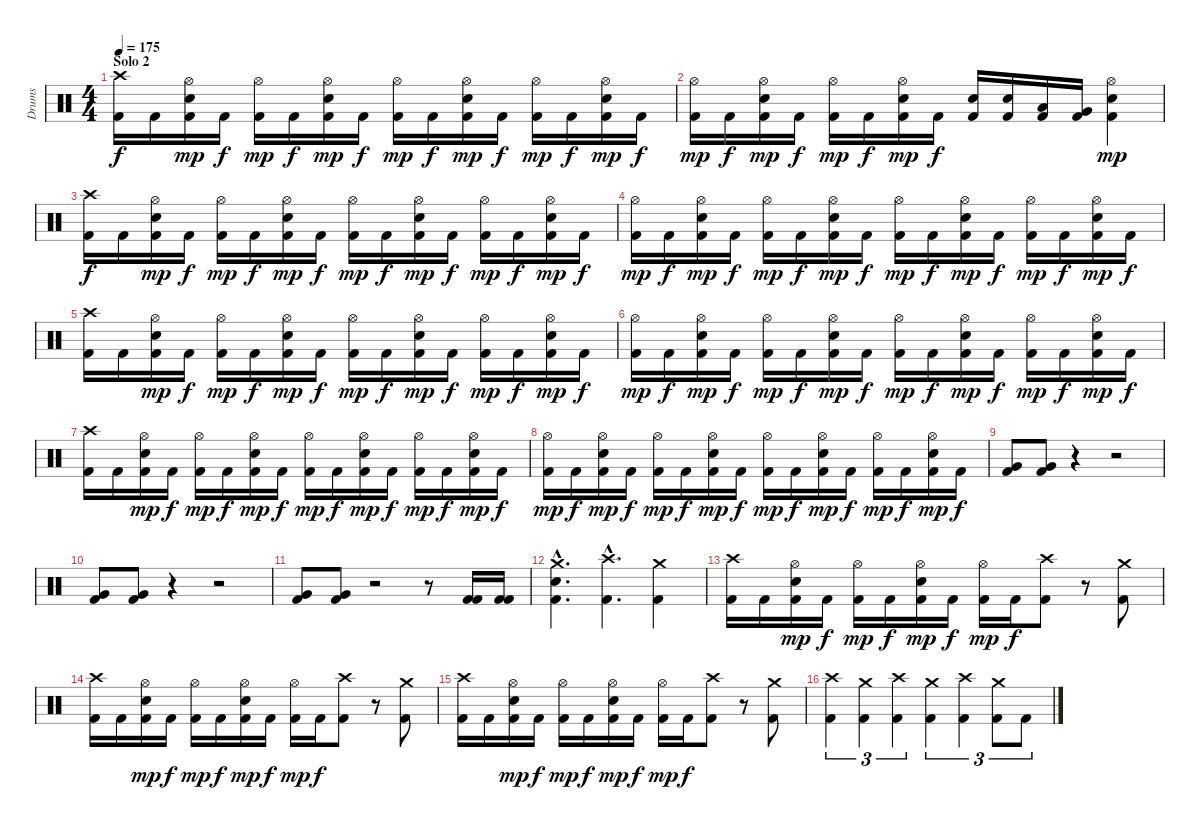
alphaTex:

\track ("Drums" "Drums") {instrument percussion}
\staff {score}
\articulation defaults
\ts (4 4)
\section ("" "Solo 2")
\tempo 175
\clef neutral
\ks c
("Kick (hit) 2" "Crash high (hit)").16{dy f} "Kick (hit) 2".16 ("Kick (hit) 2" "Electric Snare (hit)" "Hi-Hat (open)").16{dy mp} "Kick (hit) 2".16{dy f} ("Kick (hit) 2" "Hi-Hat (open)").16{dy mp} "Kick (hit) 2".16{dy f} ("Kick (hit) 2" "Electric Snare (hit)" "Hi-Hat (open)").16{dy mp} "Kick (hit) 2".16{dy f} ("Kick (hit) 2" "Hi-Hat (open)").16{dy mp} "Kick (hit) 2".16{dy f} ("Kick (hit) 2" "Electric Snare (hit)" "Hi-Hat (open)").16{dy mp} "Kick (hit) 2".16{dy f} ("Kick (hit) 2" "Hi-Hat (open)").16{dy mp} "Kick (hit) 2".16{dy f} ("Kick (hit) 2" "Electric Snare (hit)" "Hi-Hat (open)").16{dy mp} "Kick (hit) 2".16{dy f} |
("Kick (hit) 2" "Hi-Hat (open)").16{dy mp} "Kick (hit) 2".16{dy f} ("Kick (hit) 2" "Electric Snare (hit)" "Hi-Hat (open)").16{dy mp} "Kick (hit) 2".16{dy f} ("Kick (hit) 2" "Hi-Hat (open)").16{dy mp} "Kick (hit) 2".16{dy f} ("Kick (hit) 2" "Electric Snare (hit)" "Hi-Hat (open)").16{dy mp} "Kick (hit) 2".16{dy f} ("Kick (hit) 2" "Electric Snare (hit)").16 ("Kick (hit) 2" "Electric Snare (hit)").16 ("Kick (hit) 2" "Low Tom (hit)").16 ("Kick (hit) 2" "Very Low Tom (hit)").16 ("Kick (hit) 2" "Electric Snare (hit)" "Hi-Hat (open)").4{dy mp} |
("Kick (hit) 2" "Crash high (hit)").16{dy f} "Kick (hit) 2".16 ("Kick (hit) 2" "Electric Snare (hit)" "Hi-Hat (open)").16{dy mp} "Kick (hit) 2".16{dy f} ("Kick (hit) 2" "Hi-Hat (open)").16{dy mp} "Kick (hit) 2".16{dy f} ("Kick (hit) 2" "Electric Snare (hit)" "Hi-Hat (open)").16{dy mp} "Kick (hit) 2".16{dy f} ("Kick (hit) 2" "Hi-Hat (open)").16{dy mp} "Kick (hit) 2".16{dy f} ("Kick (hit) 2" "Electric Snare (hit)" "Hi-Hat (open)").16{dy mp} "Kick (hit) 2".16{dy f} ("Kick (hit) 2" "Hi-Hat (open)").16{dy mp} "Kick (hit) 2".16{dy f} ("Kick (hit) 2" "Electric Snare (hit)" "Hi-Hat (open)").16{dy mp} "Kick (hit) 2".16{dy f} |
("Kick (hit) 2" "Hi-Hat (open)").16{dy mp} "Kick (hit) 2".16{dy f} ("Kick (hit) 2" "Electric Snare (hit)" "Hi-Hat (open)").16{dy mp} "Kick (hit) 2".16{dy f} ("Kick (hit) 2" "Hi-Hat (open)").16{dy mp} "Kick (hit) 2".16{dy f} ("Kick (hit) 2" "Electric Snare (hit)" "Hi-Hat (open)").16{dy mp} "Kick (hit) 2".16{dy f} ("Kick (hit) 2" "Hi-Hat (open)").16{dy mp} "Kick (hit) 2".16{dy f} ("Kick (hit) 2" "Electric Snare (hit)" "Hi-Hat (open)").16{dy mp} "Kick (hit) 2".16{dy f} ("Kick (hit) 2" "Hi-Hat (open)").16{dy mp} "Kick (hit) 2".16{dy f} ("Kick (hit) 2" "Electric Snare (hit)" "Hi-Hat (open)").16{dy mp} "Kick (hit) 2".16{dy f} |
("Kick (hit) 2" "Crash high (hit)").16 "Kick (hit) 2".16 ("Kick (hit) 2" "Electric Snare (hit)" "Hi-Hat (open)").16{dy mp} "Kick (hit) 2".16{dy f} ("Kick (hit) 2" "Hi-Hat (open)").16{dy mp} "Kick (hit) 2".16{dy f} ("Kick (hit) 2" "Electric Snare (hit)" "Hi-Hat (open)").16{dy mp} "Kick (hit) 2".16{dy f} ("Kick (hit) 2" "Hi-Hat (open)").16{dy mp} "Kick (hit) 2".16{dy f} ("Kick (hit) 2" "Electric Snare (hit)" "Hi-Hat (open)").16{dy mp} "Kick (hit) 2".16{dy f} ("Kick (hit) 2" "Hi-Hat (open)").16{dy mp} "Kick (hit) 2".16{dy f} ("Kick (hit) 2" "Electric Snare (hit)" "Hi-Hat (open)").16{dy mp} "Kick (hit) 2".16{dy f} |
("Kick (hit) 2" "Hi-Hat (open)").16{dy mp} "Kick (hit) 2".16{dy f} ("Kick (hit) 2" "Electric Snare (hit)" "Hi-Hat (open)").16{dy mp} "Kick (hit) 2".16{dy f} ("Kick (hit) 2" "Hi-Hat (open)").16{dy mp} "Kick (hit) 2".16{dy f} ("Kick (hit) 2" "Electric Snare (hit)" "Hi-Hat (open)").16{dy mp} "Kick (hit) 2".16{dy f} ("Kick (hit) 2" "Hi-Hat (open)").16{dy mp} "Kick (hit) 2".16{dy f} ("Kick (hit) 2" "Electric Snare (hit)" "Hi-Hat (open)").16{dy mp} "Kick (hit) 2".16{dy f} ("Kick (hit) 2" "Hi-Hat (open)").16{dy mp} "Kick (hit) 2".16{dy f} ("Kick (hit) 2" "Electric Snare (hit)" "Hi-Hat (open)").16{dy mp} "Kick (hit) 2".16{dy f} |
("Kick (hit) 2" "Crash high (hit)").16 "Kick (hit) 2".16 ("Kick (hit) 2" "Electric Snare (hit)" "Hi-Hat (open)").16{dy mp} "Kick (hit) 2".16{dy f} ("Kick (hit) 2" "Hi-Hat (open)").16{dy mp} "Kick (hit) 2".16{dy f} ("Kick (hit) 2" "Electric Snare (hit)" "Hi-Hat (open)").16{dy mp} "Kick (hit) 2".16{dy f} ("Kick (hit) 2" "Hi-Hat (open)").16{dy mp} "Kick (hit) 2".16{dy f} ("Kick (hit) 2" "Electric Snare (hit)" "Hi-Hat (open)").16{dy mp} "Kick (hit) 2".16{dy f} ("Kick (hit) 2" "Hi-Hat (open)").16{dy mp} "Kick (hit) 2".16{dy f} ("Kick (hit) 2" "Electric Snare (hit)" "Hi-Hat (open)").16{dy mp} "Kick (hit) 2".16{dy f} |
("Kick (hit) 2" "Hi-Hat (open)").16{dy mp} "Kick (hit) 2".16{dy f} ("Kick (hit) 2" "Electric Snare (hit)" "Hi-Hat (open)").16{dy mp} "Kick (hit) 2".16{dy f} ("Kick (hit) 2" "Hi-Hat (open)").16{dy mp} "Kick (hit) 2".16{dy f} ("Kick (hit) 2" "Electric Snare (hit)" "Hi-Hat (open)").16{dy mp} "Kick (hit) 2".16{dy f} ("Kick (hit) 2" "Hi-Hat (open)").16{dy mp} "Kick (hit) 2".16{dy f} ("Kick (hit) 2" "Electric Snare (hit)" "Hi-Hat (open)").16{dy mp} "Kick (hit) 2".16{dy f} ("Kick (hit) 2" "Hi-Hat (open)").16{dy mp} "Kick (hit) 2".16{dy f} ("Kick (hit) 2" "Electric Snare (hit)" "Hi-Hat (open)").16{dy mp} "Kick (hit) 2".16{dy f} |
("Kick (hit) 2" "Very Low Tom (hit)").8 ("Kick (hit) 2" "Very Low Tom (hit)").8 r.4 r.2 |
("Kick (hit) 2" "Very Low Tom (hit)").8 ("Kick (hit) 2" "Very Low Tom (hit)").8 r.4 r.2 |
("Kick (hit) 2" "Very Low Tom (hit)").8 ("Kick (hit) 2" "Very Low Tom (hit)").8 r.2 r.8 ("Kick (hit) 2" "Kick (hit) 2").16 ("Kick (hit) 2" "Kick (hit) 2").16 |
("Kick (hit) 2"{hac} "Electric Snare (hit)"{hac} "Crash medium (hit)"{hac}).4{d} ("Kick (hit) 2"{hac} "Crash high (hit)"{hac}).4{d} ("Kick (hit) 2" "Crash medium (hit)").4 |
("Kick (hit) 2" "Crash high (hit)").16 "Kick (hit) 2".16 ("Kick (hit) 2" "Electric Snare (hit)" "Hi-Hat (open)").16{dy mp} "Kick (hit) 2".16{dy f} ("Kick (hit) 2" "Hi-Hat (open)").16{dy mp} "Kick (hit) 2".16{dy f} ("Kick (hit) 2" "Electric Snare (hit)" "Hi-Hat (open)").16{dy mp} "Kick (hit) 2".16{dy f} ("Kick (hit) 2" "Hi-Hat (open)").16{dy mp} "Kick (hit) 2".16{dy f} ("Kick (hit) 2" "Crash high (hit)").8 r.8 ("Kick (hit) 2" "Crash medium (hit)").8 |
("Kick (hit) 2" "Crash high (hit)").16 "Kick (hit) 2".16 ("Kick (hit) 2" "Electric Snare (hit)" "Hi-Hat (open)").16{dy mp} "Kick (hit) 2".16{dy f} ("Kick (hit) 2" "Hi-Hat (open)").16{dy mp} "Kick (hit) 2".16{dy f} ("Kick (hit) 2" "Electric Snare (hit)" "Hi-Hat (open)").16{dy mp} "Kick (hit) 2".16{dy f} ("Kick (hit) 2" "Hi-Hat (open)").16{dy mp} "Kick (hit) 2".16{dy f} ("Kick (hit) 2" "Crash high (hit)").8 r.8 ("Kick (hit) 2" "Crash medium (hit)").8 |
("Kick (hit) 2" "Crash high (hit)").16 "Kick (hit) 2".16 ("Kick (hit) 2" "Electric Snare (hit)" "Hi-Hat (open)").16{dy mp} "Kick (hit) 2".16{dy f} ("Kick (hit) 2" "Hi-Hat (open)").16{dy mp} "Kick (hit) 2".16{dy f} ("Kick (hit) 2" "Electric Snare (hit)" "Hi-Hat (open)").16{dy mp} "Kick (hit) 2".16{dy f} ("Kick (hit) 2" "Hi-Hat (open)").16{dy mp} "Kick (hit) 2".16{dy f} ("Kick (hit) 2" "Crash high (hit)").8 r.8 ("Kick (hit) 2" "Crash medium (hit)").8 |
("Kick (hit) 2" "Crash high (hit)").4{tu (3 2)} ("Kick (hit) 2" "Crash medium (hit)").4{tu (3 2)} ("Kick (hit) 2" "Crash high (hit)").4{tu (3 2)} ("Kick (hit) 2" "Crash medium (hit)").4{tu (3 2)} ("Kick (hit) 2" "Crash high (hit)").4{tu (3 2)} ("Kick (hit) 2" "Crash medium (hit)").8{tu (3 2)} "Kick (hit) 2".8{tu (3 2)}
